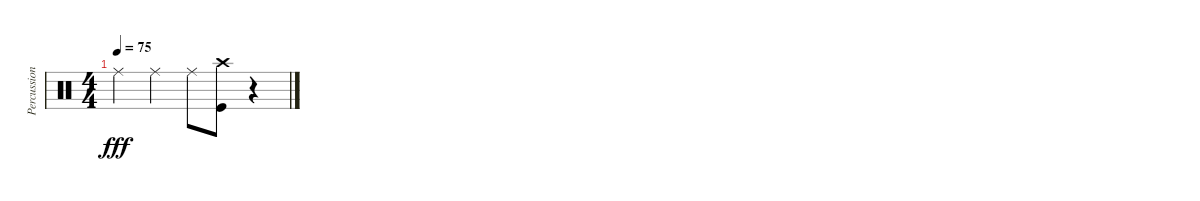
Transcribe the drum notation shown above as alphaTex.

\track ("Percussion" "Percussion") {instrument percussion}
\staff {score}
\articulation defaults
\ts (4 4)
\tempo 75
\clef neutral
\ks c "Ride (middle)".4{dy fff} "Ride (middle)".4 "Ride (middle)".8
("Crash high (hit)" "Kick (hit)").8 r.4
